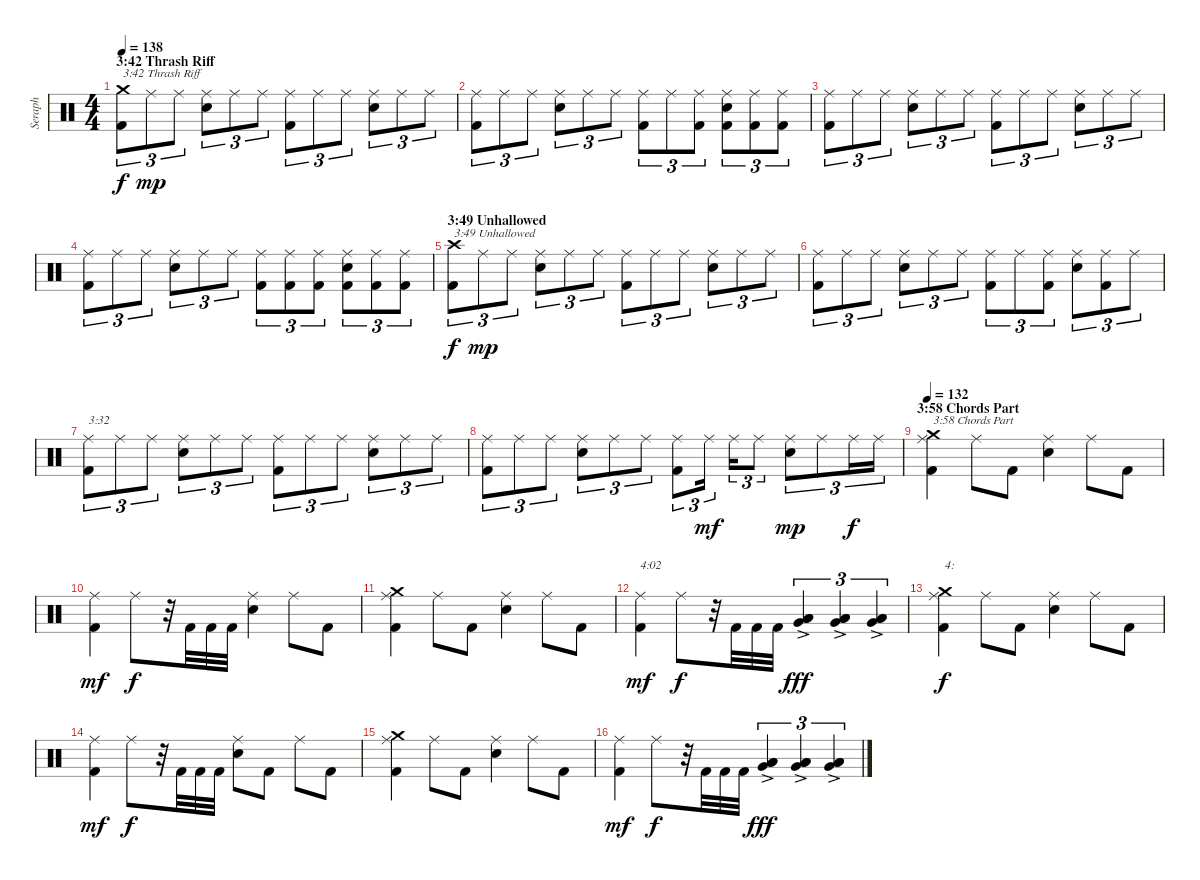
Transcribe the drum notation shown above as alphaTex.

\track ("Seraph" "Seraph") {instrument percussion}
\staff {score}
\articulation defaults
\ts (4 4)
\section ("" "3:42 Thrash Riff")
\tempo 138
\clef neutral
\ks c
("Kick (hit) 2" "Crash medium (hit)").8{tu (3 2) txt "3:42 Thrash Riff" dy f} "Ride (middle)".8{tu (3 2) dy mp} "Ride (middle)".8{tu (3 2)} ("Electric Snare (hit)" "Ride (middle)").8{tu (3 2)} "Ride (middle)".8{tu (3 2)} "Ride (middle)".8{tu (3 2)} ("Kick (hit) 2" "Ride (middle)").8{tu (3 2)} "Ride (middle)".8{tu (3 2)} "Ride (middle)".8{tu (3 2)} ("Electric Snare (hit)" "Ride (middle)").8{tu (3 2)} "Ride (middle)".8{tu (3 2)} "Ride (middle)".8{tu (3 2)} |
("Kick (hit) 2" "Ride (middle)").8{tu (3 2)} "Ride (middle)".8{tu (3 2)} "Ride (middle)".8{tu (3 2)} ("Electric Snare (hit)" "Ride (middle)").8{tu (3 2)} "Ride (middle)".8{tu (3 2)} "Ride (middle)".8{tu (3 2)} ("Kick (hit) 2" "Ride (middle)").8{tu (3 2)} "Ride (middle)".8{tu (3 2)} ("Kick (hit) 2" "Ride (middle)").8{tu (3 2)} ("Kick (hit) 2" "Electric Snare (hit)" "Ride (middle)").8{tu (3 2)} ("Kick (hit) 2" "Ride (middle)").8{tu (3 2)} ("Kick (hit) 2" "Ride (middle)").8{tu (3 2)} |
("Kick (hit) 2" "Ride (middle)").8{tu (3 2)} "Ride (middle)".8{tu (3 2)} "Ride (middle)".8{tu (3 2)} ("Electric Snare (hit)" "Ride (middle)").8{tu (3 2)} "Ride (middle)".8{tu (3 2)} "Ride (middle)".8{tu (3 2)} ("Kick (hit) 2" "Ride (middle)").8{tu (3 2)} "Ride (middle)".8{tu (3 2)} "Ride (middle)".8{tu (3 2)} ("Electric Snare (hit)" "Ride (middle)").8{tu (3 2)} "Ride (middle)".8{tu (3 2)} "Ride (middle)".8{tu (3 2)} |
("Kick (hit) 2" "Ride (middle)").8{tu (3 2)} "Ride (middle)".8{tu (3 2)} "Ride (middle)".8{tu (3 2)} ("Electric Snare (hit)" "Ride (middle)").8{tu (3 2)} "Ride (middle)".8{tu (3 2)} "Ride (middle)".8{tu (3 2)} ("Kick (hit) 2" "Ride (middle)").8{tu (3 2)} ("Kick (hit) 2" "Ride (middle)").8{tu (3 2)} ("Kick (hit) 2" "Ride (middle)").8{tu (3 2)} ("Kick (hit) 2" "Electric Snare (hit)" "Ride (middle)").8{tu (3 2)} ("Kick (hit) 2" "Ride (middle)").8{tu (3 2)} ("Kick (hit) 2" "Ride (middle)").8{tu (3 2)} |
\section ("" "3:49 Unhallowed")
("Kick (hit) 2" "Crash high (hit)").8{tu (3 2) txt "3:49 Unhallowed" dy f} "Ride (middle)".8{tu (3 2) dy mp} "Ride (middle)".8{tu (3 2)} ("Electric Snare (hit)" "Ride (middle)").8{tu (3 2)} "Ride (middle)".8{tu (3 2)} "Ride (middle)".8{tu (3 2)} ("Kick (hit) 2" "Ride (middle)").8{tu (3 2)} "Ride (middle)".8{tu (3 2)} "Ride (middle)".8{tu (3 2)} ("Electric Snare (hit)" "Ride (middle)").8{tu (3 2)} "Ride (middle)".8{tu (3 2)} "Ride (middle)".8{tu (3 2)} |
("Kick (hit) 2" "Ride (middle)").8{tu (3 2)} "Ride (middle)".8{tu (3 2)} "Ride (middle)".8{tu (3 2)} ("Electric Snare (hit)" "Ride (middle)").8{tu (3 2)} "Ride (middle)".8{tu (3 2)} "Ride (middle)".8{tu (3 2)} ("Kick (hit) 2" "Ride (middle)").8{tu (3 2)} "Ride (middle)".8{tu (3 2)} ("Kick (hit) 2" "Ride (middle)").8{tu (3 2)} ("Electric Snare (hit)" "Ride (middle)").8{tu (3 2)} ("Kick (hit) 2" "Ride (middle)").8{tu (3 2)} "Ride (middle)".8{tu (3 2)} |
("Kick (hit) 2" "Ride (middle)").8{tu (3 2) txt "3:32"} "Ride (middle)".8{tu (3 2)} "Ride (middle)".8{tu (3 2)} ("Electric Snare (hit)" "Ride (middle)").8{tu (3 2)} "Ride (middle)".8{tu (3 2)} "Ride (middle)".8{tu (3 2)} ("Kick (hit) 2" "Ride (middle)").8{tu (3 2)} "Ride (middle)".8{tu (3 2)} "Ride (middle)".8{tu (3 2)} ("Electric Snare (hit)" "Ride (middle)").8{tu (3 2)} "Ride (middle)".8{tu (3 2)} "Ride (middle)".8{tu (3 2)} |
("Kick (hit) 2" "Ride (middle)").8{tu (3 2)} "Ride (middle)".8{tu (3 2)} "Ride (middle)".8{tu (3 2)} ("Electric Snare (hit)" "Ride (middle)").8{tu (3 2)} "Ride (middle)".8{tu (3 2)} "Ride (middle)".8{tu (3 2)} ("Kick (hit) 2" "Ride (middle)").8{tu (3 2)} "Ride (middle)".16{tu (3 2) dy mf} "Ride (middle)".16{tu (3 2)} "Ride (middle)".8{tu (3 2)} ("Electric Snare (hit)" "Ride (middle)").8{tu (3 2) dy mp} "Ride (middle)".8{tu (3 2)} "Ride (middle)".16{tu (3 2) dy f} "Ride (middle)".16{tu (3 2)} |
\section ("" "3:58 Chords Part")
\tempo 132
("Kick (hit) 2" "Ride (middle)" "Crash medium (hit)").4{txt "3:58 Chords Part"} "Ride (middle)".8 "Kick (hit) 2".8 ("Electric Snare (hit)" "Ride (middle)").4 "Ride (middle)".8 "Kick (hit) 2".8 |
("Kick (hit) 2" "Ride (middle)").4{dy mf} "Ride (middle)".8{dy f} r.32 "Kick (hit) 2".32 "Kick (hit) 2".32 "Kick (hit) 2".32 ("Electric Snare (hit)" "Ride (middle)").4 "Ride (middle)".8 "Kick (hit) 2".8 |
("Kick (hit) 2" "Ride (middle)" "Crash medium (hit)").4 "Ride (middle)".8 "Kick (hit) 2".8 ("Electric Snare (hit)" "Ride (middle)").4 "Ride (middle)".8 "Kick (hit) 2".8 |
("Kick (hit) 2" "Ride (middle)").4{txt "4:02" dy mf} "Ride (middle)".8{dy f} r.32 "Kick (hit) 2".32 "Kick (hit) 2".32 "Kick (hit) 2".32 ("Low Floor Tom (hit)"{ac} "Very Low Tom (hit)"{ac} "Low Tom (hit)"{ac}).4{tu (3 2) dy fff} ("Low Floor Tom (hit)"{ac} "Very Low Tom (hit)"{ac} "Low Tom (hit)"{ac}).4{tu (3 2)} ("Low Floor Tom (hit)"{ac} "Very Low Tom (hit)"{ac} "Low Tom (hit)"{ac}).4{tu (3 2)} |
("Kick (hit) 2" "Ride (middle)" "Crash medium (hit)").4{txt "4:" dy f} "Ride (middle)".8 "Kick (hit) 2".8 ("Electric Snare (hit)" "Ride (middle)").4 "Ride (middle)".8 "Kick (hit) 2".8 |
("Kick (hit) 2" "Ride (middle)").4{dy mf} "Ride (middle)".8{dy f} r.32 "Kick (hit) 2".32 "Kick (hit) 2".32 "Kick (hit) 2".32 ("Electric Snare (hit)" "Ride (middle)").8 "Kick (hit) 2".8 "Ride (middle)".8 "Kick (hit) 2".8 |
("Kick (hit) 2" "Ride (middle)" "Crash medium (hit)").4 "Ride (middle)".8 "Kick (hit) 2".8 ("Electric Snare (hit)" "Ride (middle)").4 "Ride (middle)".8 "Kick (hit) 2".8 |
("Kick (hit) 2" "Ride (middle)").4{dy mf} "Ride (middle)".8{dy f} r.32 "Kick (hit) 2".32 "Kick (hit) 2".32 "Kick (hit) 2".32 ("Low Floor Tom (hit)"{ac} "Very Low Tom (hit)"{ac} "Low Tom (hit)"{ac}).4{tu (3 2) dy fff} ("Low Floor Tom (hit)"{ac} "Very Low Tom (hit)"{ac} "Low Tom (hit)"{ac}).4{tu (3 2)} ("Low Floor Tom (hit)"{ac} "Very Low Tom (hit)"{ac} "Low Tom (hit)"{ac}).4{tu (3 2)}
